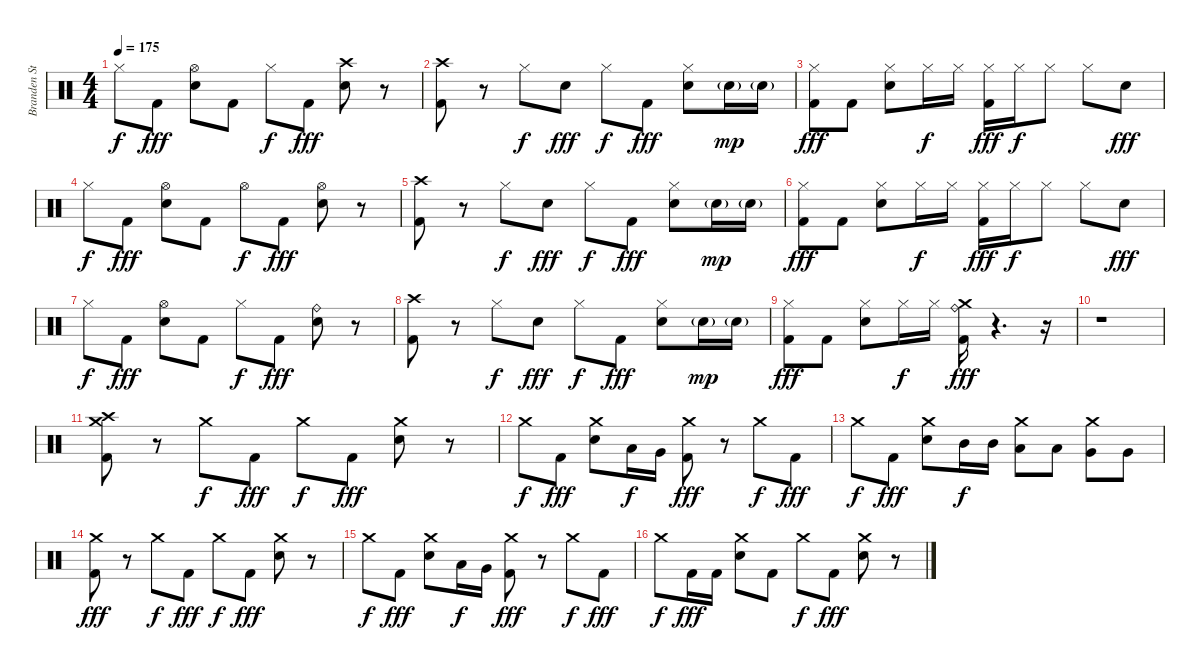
\track ("Branden Steineckert (Drums)" "Branden St") {instrument percussion}
\staff {score}
\articulation defaults
\ts (4 4)
\tempo 175
\clef neutral
\ks c "Hi-Hat (closed)".8{dy f} "Kick (hit) 2".8{dy fff}
("Electric Snare (hit)" "Hi-Hat (open)").8 "Kick (hit) 2".8 "Hi-Hat (closed)".8{dy f} "Kick (hit) 2".8{dy fff} ("Electric Snare (hit)" "Crash high (hit)").8 r.8 |
("Kick (hit) 2" "Crash high (hit)").8 r.8 "Hi-Hat (closed)".8{dy f} "Electric Snare (hit)".8{dy fff} "Hi-Hat (closed)".8{dy f} "Kick (hit) 2".8{dy fff} ("Electric Snare (hit)" "Hi-Hat (closed)").8 "Electric Snare (hit)"{g}.16{dy mp} "Electric Snare (hit)"{g}.16 |
("Kick (hit) 2" "Hi-Hat (closed)").8{dy fff} "Kick (hit) 2".8 ("Electric Snare (hit)" "Hi-Hat (closed)").8 "Hi-Hat (closed)".16{dy f} "Hi-Hat (closed)".16 ("Kick (hit) 2" "Hi-Hat (closed)").16{dy fff} "Hi-Hat (closed)".16{dy f} "Hi-Hat (closed)".8 "Hi-Hat (closed)".8 "Electric Snare (hit)".8{dy fff} |
"Hi-Hat (closed)".8{dy f} "Kick (hit) 2".8{dy fff} ("Electric Snare (hit)" "Hi-Hat (open)").8 "Kick (hit) 2".8 "Hi-Hat (open)".8{dy f} "Kick (hit) 2".8{dy fff} ("Electric Snare (hit)" "Hi-Hat (open)").8 r.8 |
("Kick (hit) 2" "Crash high (hit)").8 r.8 "Hi-Hat (closed)".8{dy f} "Electric Snare (hit)".8{dy fff} "Hi-Hat (closed)".8{dy f} "Kick (hit) 2".8{dy fff} ("Electric Snare (hit)" "Hi-Hat (closed)").8 "Electric Snare (hit)"{g}.16{dy mp} "Electric Snare (hit)"{g}.16 |
("Kick (hit) 2" "Hi-Hat (closed)").8{dy fff} "Kick (hit) 2".8 ("Electric Snare (hit)" "Hi-Hat (closed)").8 "Hi-Hat (closed)".16{dy f} "Hi-Hat (closed)".16 ("Kick (hit) 2" "Hi-Hat (closed)").16{dy fff} "Hi-Hat (closed)".16{dy f} "Hi-Hat (closed)".8 "Hi-Hat (closed)".8 "Electric Snare (hit)".8{dy fff} |
"Hi-Hat (closed)".8{dy f} "Kick (hit) 2".8{dy fff} ("Electric Snare (hit)" "Hi-Hat (open)").8 "Kick (hit) 2".8 "Hi-Hat (closed)".8{dy f} "Kick (hit) 2".8{dy fff} ("Electric Snare (hit)" "Ride (bell)").8 r.8 |
("Kick (hit) 2" "Crash high (hit)").8 r.8 "Hi-Hat (closed)".8{dy f} "Electric Snare (hit)".8{dy fff} "Hi-Hat (closed)".8{dy f} "Kick (hit) 2".8{dy fff} ("Electric Snare (hit)" "Hi-Hat (closed)").8 "Electric Snare (hit)"{g}.16{dy mp} "Electric Snare (hit)"{g}.16 |
("Kick (hit) 2" "Hi-Hat (closed)").8{dy fff} "Kick (hit) 2".8 ("Electric Snare (hit)" "Hi-Hat (closed)").8 "Hi-Hat (closed)".16{dy f} "Hi-Hat (closed)".16 ("Kick (hit) 2" "Ride (bell)" "Crash medium (hit)").16{dy fff} r.4{d} r.16 |
r.1 |
("Kick (hit) 2" "Crash high (hit)" "Crash medium (hit)").8 r.8 "Crash medium (hit)".8{dy f} "Kick (hit) 2".8{dy fff} "Crash medium (hit)".8{dy f} "Kick (hit) 2".8{dy fff} ("Electric Snare (hit)" "Crash medium (hit)").8 r.8 |
"Crash medium (hit)".8{dy f} "Kick (hit) 2".8{dy fff} ("Electric Snare (hit)" "Crash medium (hit)").8 "Low Tom (hit)".16{dy f} "Very Low Tom (hit)".16 ("Kick (hit) 2" "Crash medium (hit)").8{dy fff} r.8 "Crash medium (hit)".8{dy f} "Kick (hit) 2".8{dy fff} |
"Crash medium (hit)".8{dy f} "Kick (hit) 2".8{dy fff} ("Electric Snare (hit)" "Crash medium (hit)").8 "Mid Tom (hit)".16{dy f} "Mid Tom (hit)".16 ("Low Tom (hit)" "Crash medium (hit)").8 "Low Tom (hit)".8 ("Very Low Tom (hit)" "Crash medium (hit)").8 "Very Low Tom (hit)".8 |
("Kick (hit) 2" "Crash medium (hit)").8{dy fff} r.8 "Crash medium (hit)".8{dy f} "Kick (hit) 2".8{dy fff} "Crash medium (hit)".8{dy f} "Kick (hit) 2".8{dy fff} ("Electric Snare (hit)" "Crash medium (hit)").8 r.8 |
"Crash medium (hit)".8{dy f} "Kick (hit) 2".8{dy fff} ("Electric Snare (hit)" "Crash medium (hit)").8 "Low Tom (hit)".16{dy f} "Very Low Tom (hit)".16 ("Kick (hit) 2" "Crash medium (hit)").8{dy fff} r.8 "Crash medium (hit)".8{dy f} "Kick (hit) 2".8{dy fff} |
"Crash medium (hit)".8{dy f} "Kick (hit) 2".16{dy fff} "Kick (hit) 2".16 ("Electric Snare (hit)" "Crash medium (hit)").8 "Kick (hit) 2".8 "Crash medium (hit)".8{dy f} "Kick (hit) 2".8{dy fff} ("Electric Snare (hit)" "Crash medium (hit)").8 r.8
